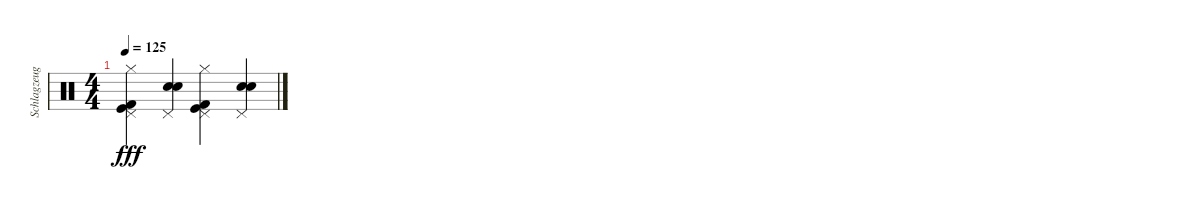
\track ("Schlagzeug" "Schlagzeug") {instrument percussion}
\staff {score}
\articulation defaults
\ts (4 4)
\tempo 125
\clef neutral
\ks c
("Pedal Hi-Hat (hit)" "Kick (hit)" "Kick (hit) 2" "Hi-Hat (closed)").4{dy fff} ("Pedal Hi-Hat (hit)" "Snare (hit) 2" "Electric Snare (hit)").4 ("Pedal Hi-Hat (hit)" "Kick (hit)" "Kick (hit) 2" "Hi-Hat (closed)").4 ("Pedal Hi-Hat (hit)" "Snare (hit) 2" "Electric Snare (hit)").4
